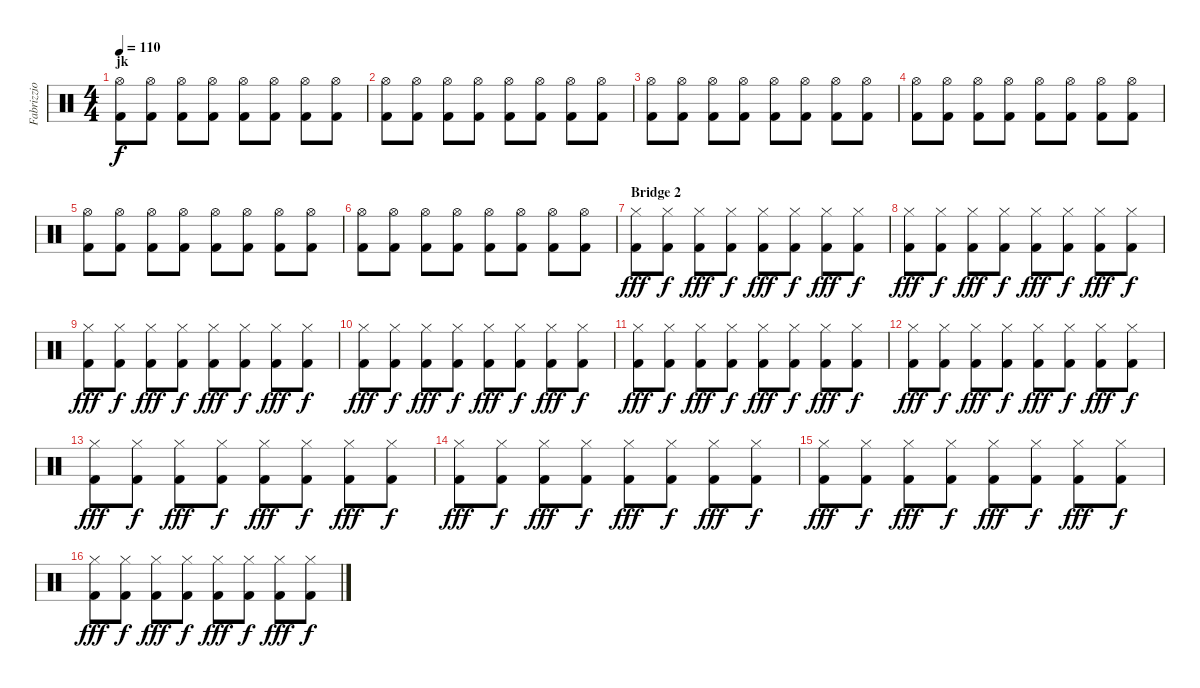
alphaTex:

\track ("Fabrizzio Moretti Drums perfomance" "Fabrizzio ") {instrument percussion}
\staff {score}
\articulation defaults
\ts (4 4)
\section ("" "jk")
\tempo 110
\clef neutral
\ks c
("Kick (hit) 2" "Hi-Hat (open)").8{dy f} ("Kick (hit) 2" "Hi-Hat (open)").8 ("Kick (hit) 2" "Hi-Hat (open)").8 ("Kick (hit) 2" "Hi-Hat (open)").8 ("Kick (hit) 2" "Hi-Hat (open)").8 ("Kick (hit) 2" "Hi-Hat (open)").8 ("Kick (hit) 2" "Hi-Hat (open)").8 ("Kick (hit) 2" "Hi-Hat (open)").8 |
("Kick (hit) 2" "Hi-Hat (open)").8 ("Kick (hit) 2" "Hi-Hat (open)").8 ("Kick (hit) 2" "Hi-Hat (open)").8 ("Kick (hit) 2" "Hi-Hat (open)").8 ("Kick (hit) 2" "Hi-Hat (open)").8 ("Kick (hit) 2" "Hi-Hat (open)").8 ("Kick (hit) 2" "Hi-Hat (open)").8 ("Kick (hit) 2" "Hi-Hat (open)").8 |
("Kick (hit) 2" "Hi-Hat (open)").8 ("Kick (hit) 2" "Hi-Hat (open)").8 ("Kick (hit) 2" "Hi-Hat (open)").8 ("Kick (hit) 2" "Hi-Hat (open)").8 ("Kick (hit) 2" "Hi-Hat (open)").8 ("Kick (hit) 2" "Hi-Hat (open)").8 ("Kick (hit) 2" "Hi-Hat (open)").8 ("Kick (hit) 2" "Hi-Hat (open)").8 |
("Kick (hit) 2" "Hi-Hat (open)").8 ("Kick (hit) 2" "Hi-Hat (open)").8 ("Kick (hit) 2" "Hi-Hat (open)").8 ("Kick (hit) 2" "Hi-Hat (open)").8 ("Kick (hit) 2" "Hi-Hat (open)").8 ("Kick (hit) 2" "Hi-Hat (open)").8 ("Kick (hit) 2" "Hi-Hat (open)").8 ("Kick (hit) 2" "Hi-Hat (open)").8 |
("Kick (hit) 2" "Hi-Hat (open)").8 ("Kick (hit) 2" "Hi-Hat (open)").8 ("Kick (hit) 2" "Hi-Hat (open)").8 ("Kick (hit) 2" "Hi-Hat (open)").8 ("Kick (hit) 2" "Hi-Hat (open)").8 ("Kick (hit) 2" "Hi-Hat (open)").8 ("Kick (hit) 2" "Hi-Hat (open)").8 ("Kick (hit) 2" "Hi-Hat (open)").8 |
("Kick (hit) 2" "Hi-Hat (open)").8 ("Kick (hit) 2" "Hi-Hat (open)").8 ("Kick (hit) 2" "Hi-Hat (open)").8 ("Kick (hit) 2" "Hi-Hat (open)").8 ("Kick (hit) 2" "Hi-Hat (open)").8 ("Kick (hit) 2" "Hi-Hat (open)").8 ("Kick (hit) 2" "Hi-Hat (open)").8 ("Kick (hit) 2" "Hi-Hat (open)").8 |
\section ("" "Bridge 2")
("Hi-Hat (closed)" "Kick (hit) 2").8{dy fff} ("Hi-Hat (closed)" "Kick (hit) 2").8{dy f} ("Hi-Hat (closed)" "Kick (hit) 2").8{dy fff} ("Hi-Hat (closed)" "Kick (hit) 2").8{dy f} ("Hi-Hat (closed)" "Kick (hit) 2").8{dy fff} ("Hi-Hat (closed)" "Kick (hit) 2").8{dy f} ("Hi-Hat (closed)" "Kick (hit) 2").8{dy fff} ("Hi-Hat (closed)" "Kick (hit) 2").8{dy f} |
("Hi-Hat (closed)" "Kick (hit) 2").8{dy fff} ("Hi-Hat (closed)" "Kick (hit) 2").8{dy f} ("Hi-Hat (closed)" "Kick (hit) 2").8{dy fff} ("Hi-Hat (closed)" "Kick (hit) 2").8{dy f} ("Hi-Hat (closed)" "Kick (hit) 2").8{dy fff} ("Hi-Hat (closed)" "Kick (hit) 2").8{dy f} ("Hi-Hat (closed)" "Kick (hit) 2").8{dy fff} ("Hi-Hat (closed)" "Kick (hit) 2").8{dy f} |
("Hi-Hat (closed)" "Kick (hit) 2").8{dy fff} ("Hi-Hat (closed)" "Kick (hit) 2").8{dy f} ("Hi-Hat (closed)" "Kick (hit) 2").8{dy fff} ("Hi-Hat (closed)" "Kick (hit) 2").8{dy f} ("Hi-Hat (closed)" "Kick (hit) 2").8{dy fff} ("Hi-Hat (closed)" "Kick (hit) 2").8{dy f} ("Hi-Hat (closed)" "Kick (hit) 2").8{dy fff} ("Hi-Hat (closed)" "Kick (hit) 2").8{dy f} |
("Hi-Hat (closed)" "Kick (hit) 2").8{dy fff} ("Hi-Hat (closed)" "Kick (hit) 2").8{dy f} ("Hi-Hat (closed)" "Kick (hit) 2").8{dy fff} ("Hi-Hat (closed)" "Kick (hit) 2").8{dy f} ("Hi-Hat (closed)" "Kick (hit) 2").8{dy fff} ("Hi-Hat (closed)" "Kick (hit) 2").8{dy f} ("Hi-Hat (closed)" "Kick (hit) 2").8{dy fff} ("Hi-Hat (closed)" "Kick (hit) 2").8{dy f} |
("Hi-Hat (closed)" "Kick (hit) 2").8{dy fff} ("Hi-Hat (closed)" "Kick (hit) 2").8{dy f} ("Hi-Hat (closed)" "Kick (hit) 2").8{dy fff} ("Hi-Hat (closed)" "Kick (hit) 2").8{dy f} ("Hi-Hat (closed)" "Kick (hit) 2").8{dy fff} ("Hi-Hat (closed)" "Kick (hit) 2").8{dy f} ("Hi-Hat (closed)" "Kick (hit) 2").8{dy fff} ("Hi-Hat (closed)" "Kick (hit) 2").8{dy f} |
("Hi-Hat (closed)" "Kick (hit) 2").8{dy fff} ("Hi-Hat (closed)" "Kick (hit) 2").8{dy f} ("Hi-Hat (closed)" "Kick (hit) 2").8{dy fff} ("Hi-Hat (closed)" "Kick (hit) 2").8{dy f} ("Hi-Hat (closed)" "Kick (hit) 2").8{dy fff} ("Hi-Hat (closed)" "Kick (hit) 2").8{dy f} ("Hi-Hat (closed)" "Kick (hit) 2").8{dy fff} ("Hi-Hat (closed)" "Kick (hit) 2").8{dy f} |
("Hi-Hat (closed)" "Kick (hit) 2").8{dy fff} ("Hi-Hat (closed)" "Kick (hit) 2").8{dy f} ("Hi-Hat (closed)" "Kick (hit) 2").8{dy fff} ("Hi-Hat (closed)" "Kick (hit) 2").8{dy f} ("Hi-Hat (closed)" "Kick (hit) 2").8{dy fff} ("Hi-Hat (closed)" "Kick (hit) 2").8{dy f} ("Hi-Hat (closed)" "Kick (hit) 2").8{dy fff} ("Hi-Hat (closed)" "Kick (hit) 2").8{dy f} |
("Hi-Hat (closed)" "Kick (hit) 2").8{dy fff} ("Hi-Hat (closed)" "Kick (hit) 2").8{dy f} ("Hi-Hat (closed)" "Kick (hit) 2").8{dy fff} ("Hi-Hat (closed)" "Kick (hit) 2").8{dy f} ("Hi-Hat (closed)" "Kick (hit) 2").8{dy fff} ("Hi-Hat (closed)" "Kick (hit) 2").8{dy f} ("Hi-Hat (closed)" "Kick (hit) 2").8{dy fff} ("Hi-Hat (closed)" "Kick (hit) 2").8{dy f} |
("Hi-Hat (closed)" "Kick (hit) 2").8{dy fff} ("Hi-Hat (closed)" "Kick (hit) 2").8{dy f} ("Hi-Hat (closed)" "Kick (hit) 2").8{dy fff} ("Hi-Hat (closed)" "Kick (hit) 2").8{dy f} ("Hi-Hat (closed)" "Kick (hit) 2").8{dy fff} ("Hi-Hat (closed)" "Kick (hit) 2").8{dy f} ("Hi-Hat (closed)" "Kick (hit) 2").8{dy fff} ("Hi-Hat (closed)" "Kick (hit) 2").8{dy f} |
("Hi-Hat (closed)" "Kick (hit) 2").8{dy fff} ("Hi-Hat (closed)" "Kick (hit) 2").8{dy f} ("Hi-Hat (closed)" "Kick (hit) 2").8{dy fff} ("Hi-Hat (closed)" "Kick (hit) 2").8{dy f} ("Hi-Hat (closed)" "Kick (hit) 2").8{dy fff} ("Hi-Hat (closed)" "Kick (hit) 2").8{dy f} ("Hi-Hat (closed)" "Kick (hit) 2").8{dy fff} ("Hi-Hat (closed)" "Kick (hit) 2").8{dy f}
